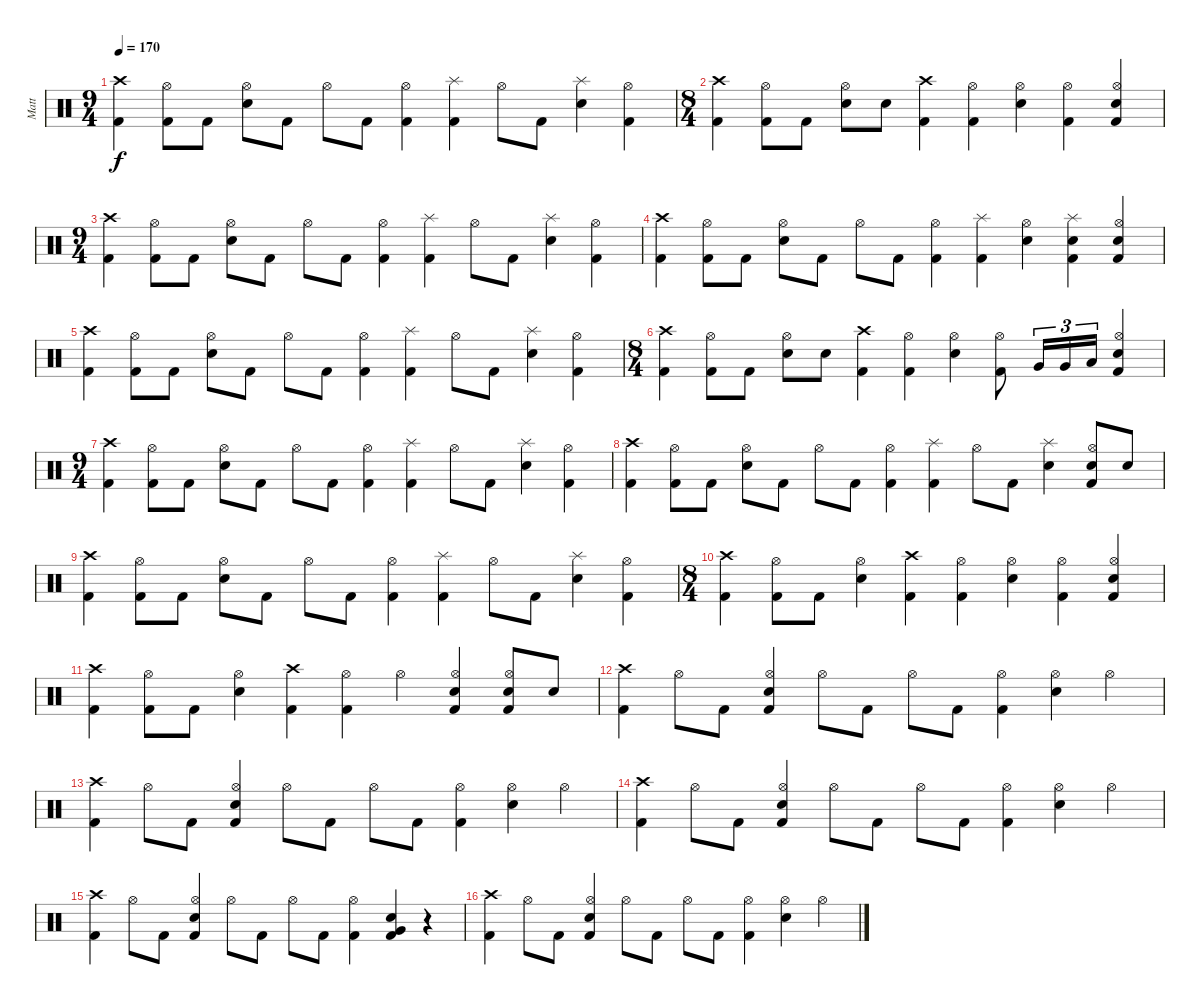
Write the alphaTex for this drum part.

\track ("Matt" "Matt") {instrument percussion}
\staff
\articulation defaults
\ts (9 4)
\tempo 170
\clef neutral
\ks c
("Crash high (hit)" "Kick (hit) 2").4{dy f} ("Hi-Hat (open)" "Kick (hit) 2").8 "Kick (hit) 2".8 ("Snare (hit) 2" "Hi-Hat (open)").8 "Kick (hit) 2".8 "Hi-Hat (open)".8 "Kick (hit) 2".8 ("Hi-Hat (open)" "Kick (hit) 2").4 ("Splash (hit)" "Kick (hit) 2").4 "Hi-Hat (open)".8 "Kick (hit) 2".8 ("Splash (hit)" "Snare (hit) 2").4 ("Hi-Hat (open)" "Kick (hit) 2").4 |
\ts (8 4)
("Crash high (hit)" "Kick (hit) 2").4 ("Hi-Hat (open)" "Kick (hit) 2").8 "Kick (hit) 2".8 ("Snare (hit) 2" "Hi-Hat (open)").8 "Snare (hit) 2".8 ("Crash high (hit)" "Kick (hit) 2").4 ("Hi-Hat (open)" "Kick (hit) 2").4 ("Snare (hit) 2" "Hi-Hat (open)").4 ("Hi-Hat (open)" "Kick (hit) 2").4 ("Snare (hit) 2" "Hi-Hat (open)" "Kick (hit) 2").4 |
\ts (9 4)
("Crash high (hit)" "Kick (hit) 2").4 ("Hi-Hat (open)" "Kick (hit) 2").8 "Kick (hit) 2".8 ("Snare (hit) 2" "Hi-Hat (open)").8 "Kick (hit) 2".8 "Hi-Hat (open)".8 "Kick (hit) 2".8 ("Hi-Hat (open)" "Kick (hit) 2").4 ("Splash (hit)" "Kick (hit) 2").4 "Hi-Hat (open)".8 "Kick (hit) 2".8 ("Splash (hit)" "Snare (hit) 2").4 ("Hi-Hat (open)" "Kick (hit) 2").4 |
("Crash high (hit)" "Kick (hit) 2").4 ("Hi-Hat (open)" "Kick (hit) 2").8 "Kick (hit) 2".8 ("Snare (hit) 2" "Hi-Hat (open)").8 "Kick (hit) 2".8 "Hi-Hat (open)".8 "Kick (hit) 2".8 ("Hi-Hat (open)" "Kick (hit) 2").4 ("Splash (hit)" "Kick (hit) 2").4 ("Snare (hit) 2" "Hi-Hat (open)").4 ("Splash (hit)" "Snare (hit) 2" "Kick (hit) 2").4 ("Snare (hit) 2" "Hi-Hat (open)" "Kick (hit) 2").4 |
("Crash high (hit)" "Kick (hit) 2").4 ("Hi-Hat (open)" "Kick (hit) 2").8 "Kick (hit) 2".8 ("Snare (hit) 2" "Hi-Hat (open)").8 "Kick (hit) 2".8 "Hi-Hat (open)".8 "Kick (hit) 2".8 ("Hi-Hat (open)" "Kick (hit) 2").4 ("Splash (hit)" "Kick (hit) 2").4 "Hi-Hat (open)".8 "Kick (hit) 2".8 ("Splash (hit)" "Snare (hit) 2").4 ("Hi-Hat (open)" "Kick (hit) 2").4 |
\ts (8 4)
("Crash high (hit)" "Kick (hit) 2").4 ("Hi-Hat (open)" "Kick (hit) 2").8 "Kick (hit) 2".8 ("Snare (hit) 2" "Hi-Hat (open)").8 "Snare (hit) 2".8 ("Crash high (hit)" "Kick (hit) 2").4 ("Hi-Hat (open)" "Kick (hit) 2").4 ("Snare (hit) 2" "Hi-Hat (open)").4 ("Hi-Hat (open)" "Kick (hit) 2").8 "Very Low Tom (hit)".16{tu (3 2)} "Very Low Tom (hit)".16{tu (3 2)} "Low Floor Tom (hit)".16{tu (3 2)} ("Snare (hit) 2" "Hi-Hat (open)" "Kick (hit) 2").4 |
\ts (9 4)
("Crash high (hit)" "Kick (hit) 2").4 ("Hi-Hat (open)" "Kick (hit) 2").8 "Kick (hit) 2".8 ("Snare (hit) 2" "Hi-Hat (open)").8 "Kick (hit) 2".8 "Hi-Hat (open)".8 "Kick (hit) 2".8 ("Hi-Hat (open)" "Kick (hit) 2").4 ("Splash (hit)" "Kick (hit) 2").4 "Hi-Hat (open)".8 "Kick (hit) 2".8 ("Splash (hit)" "Snare (hit) 2").4 ("Hi-Hat (open)" "Kick (hit) 2").4 |
("Crash high (hit)" "Kick (hit) 2").4 ("Hi-Hat (open)" "Kick (hit) 2").8 "Kick (hit) 2".8 ("Snare (hit) 2" "Hi-Hat (open)").8 "Kick (hit) 2".8 "Hi-Hat (open)".8 "Kick (hit) 2".8 ("Hi-Hat (open)" "Kick (hit) 2").4 ("Splash (hit)" "Kick (hit) 2").4 "Hi-Hat (open)".8 "Kick (hit) 2".8 ("Splash (hit)" "Snare (hit) 2").4 ("Snare (hit) 2" "Hi-Hat (open)" "Kick (hit) 2").8 "Snare (hit) 2".8 |
("Crash high (hit)" "Kick (hit) 2").4 ("Hi-Hat (open)" "Kick (hit) 2").8 "Kick (hit) 2".8 ("Snare (hit) 2" "Hi-Hat (open)").8 "Kick (hit) 2".8 "Hi-Hat (open)".8 "Kick (hit) 2".8 ("Hi-Hat (open)" "Kick (hit) 2").4 ("Splash (hit)" "Kick (hit) 2").4 "Hi-Hat (open)".8 "Kick (hit) 2".8 ("Splash (hit)" "Snare (hit) 2").4 ("Hi-Hat (open)" "Kick (hit) 2").4 |
\ts (8 4)
("Crash high (hit)" "Kick (hit) 2").4 ("Hi-Hat (open)" "Kick (hit) 2").8 "Kick (hit) 2".8 ("Snare (hit) 2" "Hi-Hat (open)").4 ("Crash high (hit)" "Kick (hit) 2").4 ("Hi-Hat (open)" "Kick (hit) 2").4 ("Snare (hit) 2" "Hi-Hat (open)").4 ("Hi-Hat (open)" "Kick (hit) 2").4 ("Snare (hit) 2" "Hi-Hat (open)" "Kick (hit) 2").4 |
("Crash high (hit)" "Kick (hit) 2").4 ("Hi-Hat (open)" "Kick (hit) 2").8 "Kick (hit) 2".8 ("Snare (hit) 2" "Hi-Hat (open)").4 ("Crash high (hit)" "Kick (hit) 2").4 ("Hi-Hat (open)" "Kick (hit) 2").4 "Hi-Hat (open)".4 ("Snare (hit) 2" "Hi-Hat (open)" "Kick (hit) 2").4 ("Snare (hit) 2" "Hi-Hat (open)" "Kick (hit) 2").8 "Snare (hit) 2".8 |
("Crash high (hit)" "Kick (hit) 2").4 "Hi-Hat (open)".8 "Kick (hit) 2".8 ("Snare (hit) 2" "Hi-Hat (open)" "Kick (hit) 2").4 "Hi-Hat (open)".8 "Kick (hit) 2".8 "Hi-Hat (open)".8 "Kick (hit) 2".8 ("Hi-Hat (open)" "Kick (hit) 2").4 ("Snare (hit) 2" "Hi-Hat (open)").4 "Hi-Hat (open)".4 |
("Crash high (hit)" "Kick (hit) 2").4 "Hi-Hat (open)".8 "Kick (hit) 2".8 ("Snare (hit) 2" "Hi-Hat (open)" "Kick (hit) 2").4 "Hi-Hat (open)".8 "Kick (hit) 2".8 "Hi-Hat (open)".8 "Kick (hit) 2".8 ("Hi-Hat (open)" "Kick (hit) 2").4 ("Snare (hit) 2" "Hi-Hat (open)").4 "Hi-Hat (open)".4 |
("Crash high (hit)" "Kick (hit) 2").4 "Hi-Hat (open)".8 "Kick (hit) 2".8 ("Snare (hit) 2" "Hi-Hat (open)" "Kick (hit) 2").4 "Hi-Hat (open)".8 "Kick (hit) 2".8 "Hi-Hat (open)".8 "Kick (hit) 2".8 ("Hi-Hat (open)" "Kick (hit) 2").4 ("Snare (hit) 2" "Hi-Hat (open)").4 "Hi-Hat (open)".4 |
("Crash high (hit)" "Kick (hit) 2").4 "Hi-Hat (open)".8 "Kick (hit) 2".8 ("Snare (hit) 2" "Hi-Hat (open)" "Kick (hit) 2").4 "Hi-Hat (open)".8 "Kick (hit) 2".8 "Hi-Hat (open)".8 "Kick (hit) 2".8 ("Hi-Hat (open)" "Kick (hit) 2").4 ("Very Low Tom (hit)" "Snare (hit) 2" "Kick (hit) 2").4 r.4 |
("Crash high (hit)" "Kick (hit) 2").4 "Hi-Hat (open)".8 "Kick (hit) 2".8 ("Snare (hit) 2" "Hi-Hat (open)" "Kick (hit) 2").4 "Hi-Hat (open)".8 "Kick (hit) 2".8 "Hi-Hat (open)".8 "Kick (hit) 2".8 ("Hi-Hat (open)" "Kick (hit) 2").4 ("Snare (hit) 2" "Hi-Hat (open)").4 "Hi-Hat (open)".4
